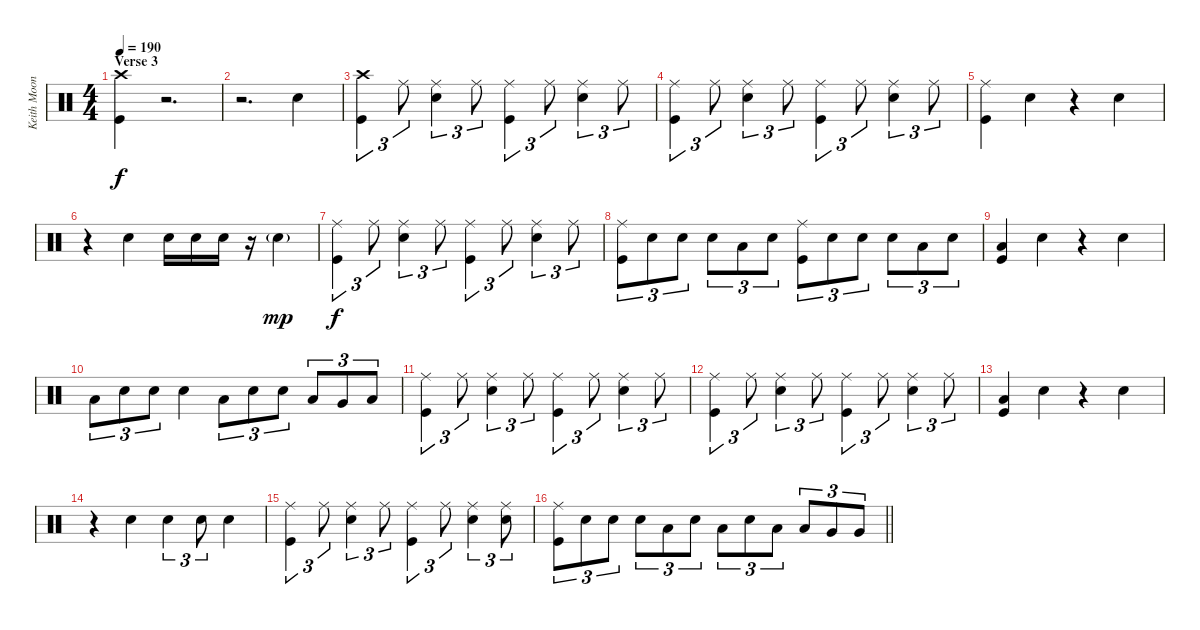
\track ("Keith Moon" "Keith Moon") {instrument percussion}
\staff {score}
\articulation defaults
\ts (4 4)
\section ("" "Verse 3")
\tempo 190
\clef neutral
\ks c
("Crash high (hit)" "Kick (hit)").4{dy f} r.2{d} |
r.2{d} "Snare (hit) 2".4 |
("Crash high (hit)" "Kick (hit)").4{tu (3 2)} "Ride (middle)".8{tu (3 2)} ("Ride (middle)" "Snare (hit) 2").4{tu (3 2)} "Ride (middle)".8{tu (3 2)} ("Ride (middle)" "Kick (hit)").4{tu (3 2)} "Ride (middle)".8{tu (3 2)} ("Ride (middle)" "Snare (hit) 2").4{tu (3 2)} "Ride (middle)".8{tu (3 2)} |
("Ride (middle)" "Kick (hit)").4{tu (3 2)} "Ride (middle)".8{tu (3 2)} ("Ride (middle)" "Snare (hit) 2").4{tu (3 2)} "Ride (middle)".8{tu (3 2)} ("Ride (middle)" "Kick (hit)").4{tu (3 2)} "Ride (middle)".8{tu (3 2)} ("Ride (middle)" "Snare (hit) 2").4{tu (3 2)} "Ride (middle)".8{tu (3 2)} |
("Ride (middle)" "Kick (hit)").4 "Hand Clap (hit)".4 r.4 "Hand Clap (hit)".4 |
r.4 "Hand Clap (hit)".4 "Hand Clap (hit)".16 "Snare (hit) 2".16 "Snare (hit) 2".16 r.16 "Hand Clap (hit)"{g}.4{dy mp} |
("Ride (middle)" "Kick (hit)").4{tu (3 2) dy f} "Ride (middle)".8{tu (3 2)} ("Ride (middle)" "Snare (hit) 2").4{tu (3 2)} "Ride (middle)".8{tu (3 2)} ("Ride (middle)" "Kick (hit)").4{tu (3 2)} "Ride (middle)".8{tu (3 2)} ("Ride (middle)" "Snare (hit) 2").4{tu (3 2)} "Ride (middle)".8{tu (3 2)} |
("Ride (middle)" "Kick (hit)").8{tu (3 2)} "Snare (hit) 2".8{tu (3 2)} "Snare (hit) 2".8{tu (3 2)} "Snare (hit) 2".8{tu (3 2)} "Low Tom (hit)".8{tu (3 2)} "Snare (hit) 2".8{tu (3 2)} ("Ride (middle)" "Kick (hit)").8{tu (3 2)} "Snare (hit) 2".8{tu (3 2)} "Snare (hit) 2".8{tu (3 2)} "Snare (hit) 2".8{tu (3 2)} "Low Tom (hit)".8{tu (3 2)} "Snare (hit) 2".8{tu (3 2)} |
("Low Tom (hit)" "Kick (hit)").4 "Hand Clap (hit)".4 r.4 "Hand Clap (hit)".4 |
"Low Tom (hit)".8{tu (3 2)} "Snare (hit) 2".8{tu (3 2)} "Snare (hit) 2".8{tu (3 2)} "Snare (hit) 2".4 "Low Tom (hit)".8{tu (3 2)} "Snare (hit) 2".8{tu (3 2)} "Snare (hit) 2".8{tu (3 2)} "Low Tom (hit)".8{tu (3 2)} "Very Low Tom (hit)".8{tu (3 2)} "Low Tom (hit)".8{tu (3 2)} |
("Ride (middle)" "Kick (hit)").4{tu (3 2)} "Ride (middle)".8{tu (3 2)} ("Ride (middle)" "Snare (hit) 2").4{tu (3 2)} "Ride (middle)".8{tu (3 2)} ("Ride (middle)" "Kick (hit)").4{tu (3 2)} "Ride (middle)".8{tu (3 2)} ("Ride (middle)" "Snare (hit) 2").4{tu (3 2)} "Ride (middle)".8{tu (3 2)} |
("Ride (middle)" "Kick (hit)").4{tu (3 2)} "Ride (middle)".8{tu (3 2)} ("Ride (middle)" "Snare (hit) 2").4{tu (3 2)} "Ride (middle)".8{tu (3 2)} ("Ride (middle)" "Kick (hit)").4{tu (3 2)} "Ride (middle)".8{tu (3 2)} ("Ride (middle)" "Snare (hit) 2").4{tu (3 2)} "Ride (middle)".8{tu (3 2)} |
("Low Tom (hit)" "Kick (hit)").4 "Hand Clap (hit)".4 r.4 "Hand Clap (hit)".4 |
r.4 "Hand Clap (hit)".4 "Hand Clap (hit)".4{tu (3 2)} "Snare (hit) 2".8{tu (3 2)} "Snare (hit) 2".4 |
("Ride (middle)" "Kick (hit)").4{tu (3 2)} "Ride (middle)".8{tu (3 2)} ("Ride (middle)" "Snare (hit) 2").4{tu (3 2)} "Ride (middle)".8{tu (3 2)} ("Ride (middle)" "Kick (hit)").4{tu (3 2)} "Ride (middle)".8{tu (3 2)} ("Ride (middle)" "Snare (hit) 2").4{tu (3 2)} ("Ride (middle)" "Snare (hit) 2").8{tu (3 2)} |
\barLineRight lightlight
("Ride (middle)" "Kick (hit)").8{tu (3 2)} "Snare (hit) 2".8{tu (3 2)} "Snare (hit) 2".8{tu (3 2)} "Snare (hit) 2".8{tu (3 2)} "Low Tom (hit)".8{tu (3 2)} "Snare (hit) 2".8{tu (3 2)} "Low Tom (hit)".8{tu (3 2)} "Snare (hit) 2".8{tu (3 2)} "Low Tom (hit)".8{tu (3 2)} "Low Tom (hit)".8{tu (3 2)} "Very Low Tom (hit)".8{tu (3 2)} "Very Low Tom (hit)".8{tu (3 2)}
